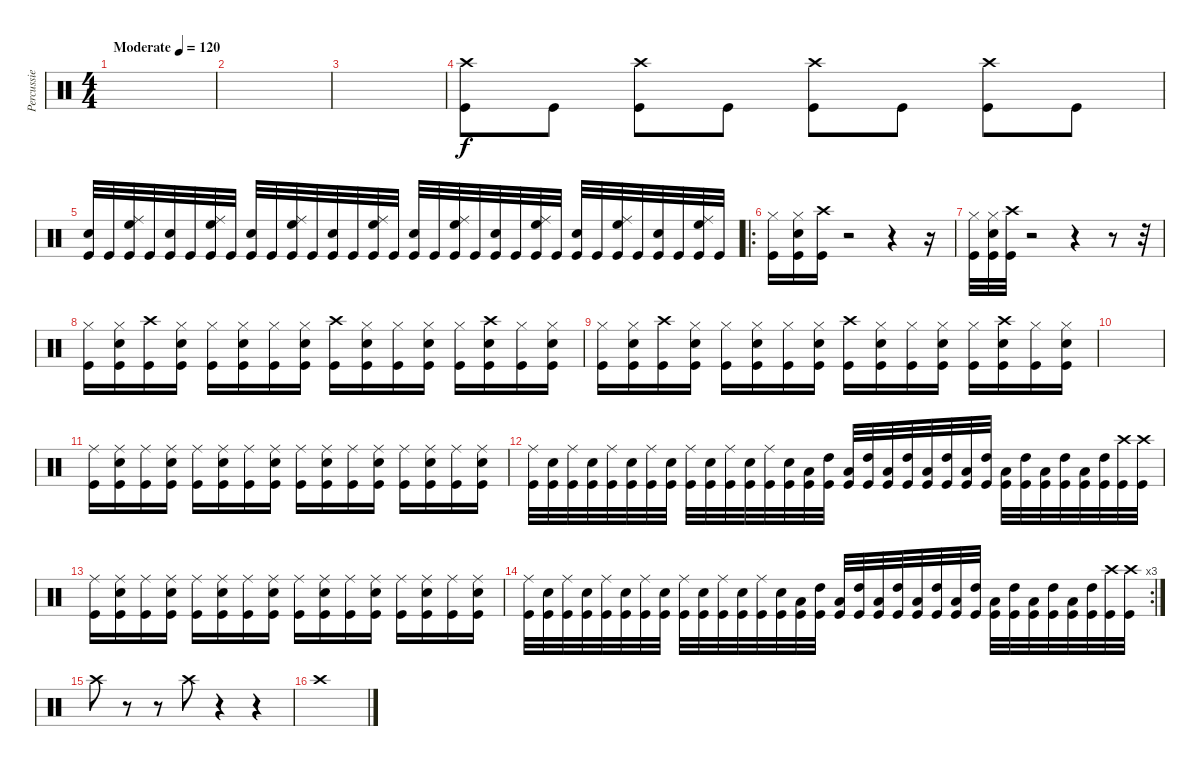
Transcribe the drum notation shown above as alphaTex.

\track ("Percussie" "Percussie") {instrument percussion}
\staff {score}
\articulation defaults
\ts (4 4)
\tempo (120 "Moderate")
\clef neutral
\ks c
|
|
|
("Crash high (hit)" "Kick (hit)").8 "Kick (hit)".8 ("Crash high (hit)" "Kick (hit)").8 "Kick (hit)".8 ("Crash high (hit)" "Kick (hit)").8 "Kick (hit)".8 ("Crash high (hit)" "Kick (hit)").8 "Kick (hit)".8 |
("Snare (hit) 2" "Kick (hit)").32 "Kick (hit)".32 ("Ride (middle)" "High Floor Tom (hit)" "Kick (hit)").32 "Kick (hit)".32 ("Snare (hit) 2" "Kick (hit)").32 "Kick (hit)".32 ("Ride (middle)" "High Floor Tom (hit)" "Kick (hit)").32 "Kick (hit)".32 ("Snare (hit) 2" "Kick (hit)").32 "Kick (hit)".32 ("Ride (middle)" "High Floor Tom (hit)" "Kick (hit)").32 "Kick (hit)".32 ("Snare (hit) 2" "Kick (hit)").32 "Kick (hit)".32 ("Ride (middle)" "High Floor Tom (hit)" "Kick (hit)").32 "Kick (hit)".32 ("Snare (hit) 2" "Kick (hit)").32 "Kick (hit)".32 ("Ride (middle)" "High Floor Tom (hit)" "Kick (hit)").32 "Kick (hit)".32 ("Snare (hit) 2" "Kick (hit)").32 "Kick (hit)".32 ("Ride (middle)" "High Floor Tom (hit)" "Kick (hit)").32 "Kick (hit)".32 ("Snare (hit) 2" "Kick (hit)").32 "Kick (hit)".32 ("Ride (middle)" "High Floor Tom (hit)" "Kick (hit)").32 "Kick (hit)".32 ("Snare (hit) 2" "Kick (hit)").32 "Kick (hit)".32 ("Ride (middle)" "High Floor Tom (hit)" "Kick (hit)").32 "Kick (hit)".32 |
\ro
("Hi-Hat (closed)" "Kick (hit)").16 ("Hi-Hat (closed)" "Snare (hit) 2" "Kick (hit)").16 ("Crash high (hit)" "Kick (hit)").16 r.2 r.4 r.16 |
("Hi-Hat (closed)" "Kick (hit)").32 ("Hi-Hat (closed)" "Snare (hit) 2" "Kick (hit)").32 ("Crash high (hit)" "Kick (hit)").32 r.2 r.4 r.8 r.32 |
("Hi-Hat (closed)" "Kick (hit)").16 ("Hi-Hat (closed)" "Snare (hit) 2" "Kick (hit)").16 ("Crash high (hit)" "Kick (hit)").16 ("Hi-Hat (closed)" "Snare (hit) 2" "Kick (hit)").16 ("Hi-Hat (closed)" "Kick (hit)").16 ("Hi-Hat (closed)" "Snare (hit) 2" "Kick (hit)").16 ("Hi-Hat (closed)" "Kick (hit)").16 ("Hi-Hat (closed)" "Snare (hit) 2" "Kick (hit)").16 ("Crash high (hit)" "Kick (hit)").16 ("Hi-Hat (closed)" "Snare (hit) 2" "Kick (hit)").16 ("Hi-Hat (closed)" "Kick (hit)").16 ("Hi-Hat (closed)" "Snare (hit) 2" "Kick (hit)").16 ("Hi-Hat (closed)" "Kick (hit)").16 ("Crash high (hit)" "Snare (hit) 2" "Kick (hit)").16 ("Hi-Hat (closed)" "Kick (hit)").16 ("Hi-Hat (closed)" "Snare (hit) 2" "Kick (hit)").16 |
("Hi-Hat (closed)" "Kick (hit)").16 ("Hi-Hat (closed)" "Snare (hit) 2" "Kick (hit)").16 ("Crash high (hit)" "Kick (hit)").16 ("Hi-Hat (closed)" "Snare (hit) 2" "Kick (hit)").16 ("Hi-Hat (closed)" "Kick (hit)").16 ("Hi-Hat (closed)" "Snare (hit) 2" "Kick (hit)").16 ("Hi-Hat (closed)" "Kick (hit)").16 ("Hi-Hat (closed)" "Snare (hit) 2" "Kick (hit)").16 ("Crash high (hit)" "Kick (hit)").16 ("Hi-Hat (closed)" "Snare (hit) 2" "Kick (hit)").16 ("Hi-Hat (closed)" "Kick (hit)").16 ("Hi-Hat (closed)" "Snare (hit) 2" "Kick (hit)").16 ("Hi-Hat (closed)" "Kick (hit)").16 ("Crash high (hit)" "Snare (hit) 2" "Kick (hit)").16 ("Hi-Hat (closed)" "Kick (hit)").16 ("Hi-Hat (closed)" "Snare (hit) 2" "Kick (hit)").16 |
|
("Ride (middle)" "Kick (hit)").16 ("Ride (middle)" "Snare (hit) 2" "Kick (hit)").16 ("Ride (middle)" "Kick (hit)").16 ("Ride (middle)" "Snare (hit) 2" "Kick (hit)").16 ("Ride (middle)" "Kick (hit)").16 ("Ride (middle)" "Snare (hit) 2" "Kick (hit)").16 ("Ride (middle)" "Kick (hit)").16 ("Ride (middle)" "Snare (hit) 2" "Kick (hit)").16 ("Ride (middle)" "Kick (hit)").16 ("Ride (middle)" "Snare (hit) 2" "Kick (hit)").16 ("Ride (middle)" "Kick (hit)").16 ("Ride (middle)" "Snare (hit) 2" "Kick (hit)").16 ("Ride (middle)" "Kick (hit)").16 ("Ride (middle)" "Snare (hit) 2" "Kick (hit)").16 ("Ride (middle)" "Kick (hit)").16 ("Ride (middle)" "Snare (hit) 2" "Kick (hit)").16 |
("Ride (middle)" "Kick (hit)").32 ("Snare (hit) 2" "Kick (hit)").32 ("Ride (middle)" "Kick (hit)").32 ("Snare (hit) 2" "Kick (hit)").32 ("Ride (middle)" "Kick (hit)").32 ("Snare (hit) 2" "Kick (hit)").32 ("Ride (middle)" "Kick (hit)").32 ("Snare (hit) 2" "Kick (hit)").32 ("Ride (middle)" "Kick (hit)").32 ("Snare (hit) 2" "Kick (hit)").32 ("Ride (middle)" "Kick (hit)").32 ("Snare (hit) 2" "Kick (hit)").32 ("Ride (middle)" "Kick (hit)").32 ("Snare (hit) 2" "Kick (hit)").32 ("Low Tom (hit)" "Kick (hit)").32 ("High Tom (hit)" "Kick (hit)").32 ("Low Tom (hit)" "Kick (hit)").32 ("High Tom (hit)" "Kick (hit)").32 ("Low Tom (hit)" "Kick (hit)").32 ("High Tom (hit)" "Kick (hit)").32 ("Low Tom (hit)" "Kick (hit)").32 ("High Tom (hit)" "Kick (hit)").32 ("Low Tom (hit)" "Kick (hit)").32 ("High Tom (hit)" "Kick (hit)").32 ("Low Tom (hit)" "Kick (hit)").32 ("High Tom (hit)" "Kick (hit)").32 ("Low Tom (hit)" "Kick (hit)").32 ("High Tom (hit)" "Kick (hit)").32 ("Low Tom (hit)" "Kick (hit)").32 ("High Tom (hit)" "Kick (hit)").32 ("Crash high (hit)" "Kick (hit)").32 ("Crash high (hit)" "Kick (hit)").32 |
("Ride (middle)" "Kick (hit)").16 ("Ride (middle)" "Snare (hit) 2" "Kick (hit)").16 ("Ride (middle)" "Kick (hit)").16 ("Ride (middle)" "Snare (hit) 2" "Kick (hit)").16 ("Ride (middle)" "Kick (hit)").16 ("Ride (middle)" "Snare (hit) 2" "Kick (hit)").16 ("Ride (middle)" "Kick (hit)").16 ("Ride (middle)" "Snare (hit) 2" "Kick (hit)").16 ("Ride (middle)" "Kick (hit)").16 ("Ride (middle)" "Snare (hit) 2" "Kick (hit)").16 ("Ride (middle)" "Kick (hit)").16 ("Ride (middle)" "Snare (hit) 2" "Kick (hit)").16 ("Ride (middle)" "Kick (hit)").16 ("Ride (middle)" "Snare (hit) 2" "Kick (hit)").16 ("Ride (middle)" "Kick (hit)").16 ("Ride (middle)" "Snare (hit) 2" "Kick (hit)").16 |
\rc 3
("Ride (middle)" "Kick (hit)").32 ("Snare (hit) 2" "Kick (hit)").32 ("Ride (middle)" "Kick (hit)").32 ("Snare (hit) 2" "Kick (hit)").32 ("Ride (middle)" "Kick (hit)").32 ("Snare (hit) 2" "Kick (hit)").32 ("Ride (middle)" "Kick (hit)").32 ("Snare (hit) 2" "Kick (hit)").32 ("Ride (middle)" "Kick (hit)").32 ("Snare (hit) 2" "Kick (hit)").32 ("Ride (middle)" "Kick (hit)").32 ("Snare (hit) 2" "Kick (hit)").32 ("Ride (middle)" "Kick (hit)").32 ("Snare (hit) 2" "Kick (hit)").32 ("Low Tom (hit)" "Kick (hit)").32 ("High Tom (hit)" "Kick (hit)").32 ("Low Tom (hit)" "Kick (hit)").32 ("High Tom (hit)" "Kick (hit)").32 ("Low Tom (hit)" "Kick (hit)").32 ("High Tom (hit)" "Kick (hit)").32 ("Low Tom (hit)" "Kick (hit)").32 ("High Tom (hit)" "Kick (hit)").32 ("Low Tom (hit)" "Kick (hit)").32 ("High Tom (hit)" "Kick (hit)").32 ("Low Tom (hit)" "Kick (hit)").32 ("High Tom (hit)" "Kick (hit)").32 ("Low Tom (hit)" "Kick (hit)").32 ("High Tom (hit)" "Kick (hit)").32 ("Low Tom (hit)" "Kick (hit)").32 ("High Tom (hit)" "Kick (hit)").32 ("Crash high (hit)" "Kick (hit)").32 ("Crash high (hit)" "Kick (hit)").32 |
"Crash high (hit)".8 r.8 r.8 "Crash high (hit)".8 r.4 r.4 |
"Crash high (hit)".1
